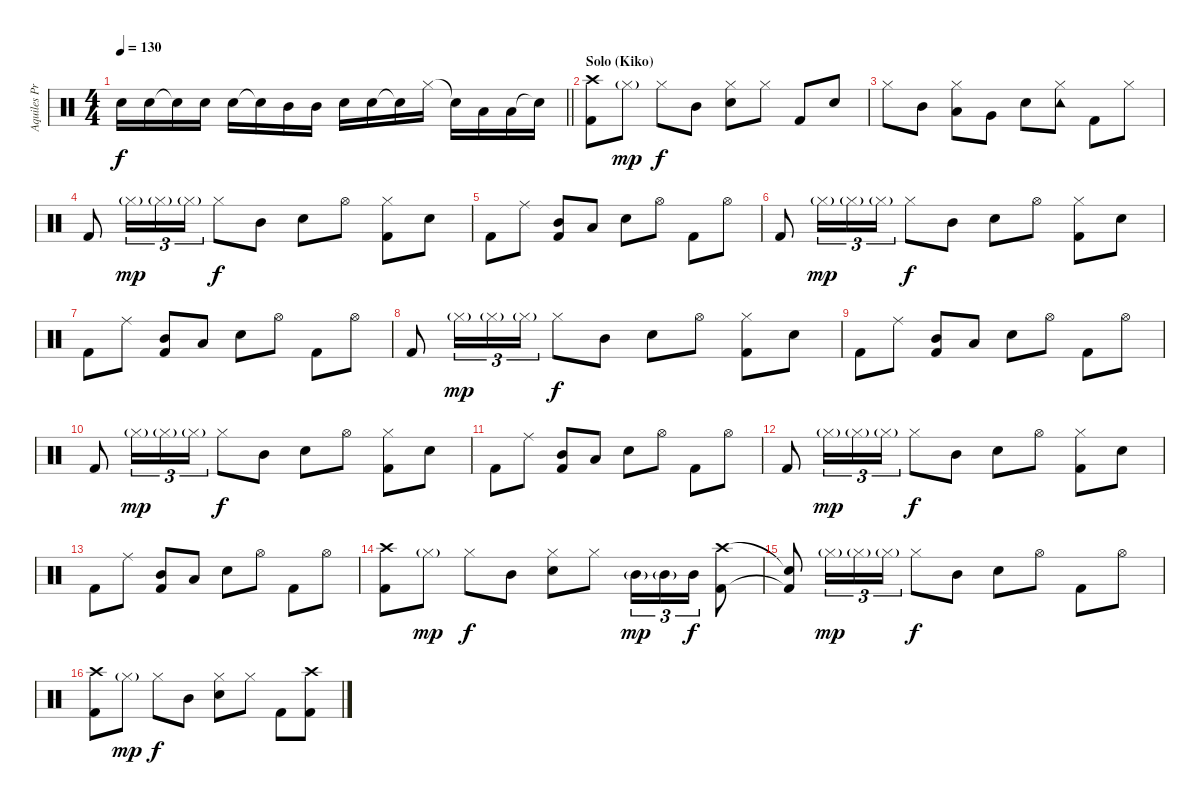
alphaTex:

\track ("Aquiles Priester" "Aquiles Pr") {instrument percussion}
\staff {score}
\articulation defaults
\ts (4 4)
\tempo 130
\clef neutral
\barLineRight lightlight
\ks c "Electric Snare (hit)".16{dy f} "Electric Snare (hit)".16 "Snare (hit)"{t}.16 "Electric Snare (hit)".16 "Electric Snare (hit)".16 "Snare (hit)"{t}.16 "Mid Tom (hit)".16 "Mid Tom (hit)".16 "Electric Snare (hit)".16 "Electric Snare (hit)".16 "Snare (hit)"{t}.16 "Hi-Hat (closed)".16 "Snare (hit)"{t}.16 "Low Tom (hit)".16 "Low Tom (hit)".16 "Snare (hit)"{t}.16
|
\section ("" "Solo (Kiko)")
("Crash high (hit)" "Kick (hit) 2").8 "Hi-Hat (closed)"{g}.8{dy mp} "Hi-Hat (closed)".8{dy f} "Mid Tom (hit)".8 ("Hi-Hat (closed)" "Electric Snare (hit)").8 "Hi-Hat (closed)".8 "Kick (hit) 2".8 "Electric Snare (hit)".8 |
"Hi-Hat (closed)".8 "Mid Tom (hit)".8 ("Hi-Hat (closed)" "Low Tom (hit)").8 "Very Low Tom (hit)".8 "Electric Snare (hit)".8 ("Tambourine (hit)" "Hi-Hat (closed)").8 "Kick (hit) 2".8 "Hi-Hat (closed)".8 |
"Kick (hit) 2".8 "Hi-Hat (closed)"{g}.16{tu (3 2) dy mp} "Hi-Hat (closed)"{g}.16{tu (3 2)} "Hi-Hat (closed)"{g}.16{tu (3 2)} "Hi-Hat (closed)".8{dy f} "Mid Tom (hit)".8 "Electric Snare (hit)".8 "Hi-Hat (open)".8 ("Hi-Hat (closed)" "Kick (hit) 2").8 "Electric Snare (hit)".8 |
"Kick (hit) 2".8 "Ride (middle)".8 ("Mid Tom (hit)" "Kick (hit) 2").8 "Low Tom (hit)".8 "Electric Snare (hit)".8 "Hi-Hat (open)".8 "Kick (hit) 2".8 "Hi-Hat (open)".8 |
"Kick (hit) 2".8 "Hi-Hat (closed)"{g}.16{tu (3 2) dy mp} "Hi-Hat (closed)"{g}.16{tu (3 2)} "Hi-Hat (closed)"{g}.16{tu (3 2)} "Hi-Hat (closed)".8{dy f} "Mid Tom (hit)".8 "Electric Snare (hit)".8 "Hi-Hat (open)".8 ("Hi-Hat (closed)" "Kick (hit) 2").8 "Electric Snare (hit)".8 |
"Kick (hit) 2".8 "Ride (middle)".8 ("Mid Tom (hit)" "Kick (hit) 2").8 "Low Tom (hit)".8 "Electric Snare (hit)".8 "Hi-Hat (open)".8 "Kick (hit) 2".8 "Hi-Hat (open)".8 |
"Kick (hit) 2".8 "Hi-Hat (closed)"{g}.16{tu (3 2) dy mp} "Hi-Hat (closed)"{g}.16{tu (3 2)} "Hi-Hat (closed)"{g}.16{tu (3 2)} "Hi-Hat (closed)".8{dy f} "Mid Tom (hit)".8 "Electric Snare (hit)".8 "Hi-Hat (open)".8 ("Hi-Hat (closed)" "Kick (hit) 2").8 "Electric Snare (hit)".8 |
"Kick (hit) 2".8 "Ride (middle)".8 ("Mid Tom (hit)" "Kick (hit) 2").8 "Low Tom (hit)".8 "Electric Snare (hit)".8 "Hi-Hat (open)".8 "Kick (hit) 2".8 "Hi-Hat (open)".8 |
"Kick (hit) 2".8 "Hi-Hat (closed)"{g}.16{tu (3 2) dy mp} "Hi-Hat (closed)"{g}.16{tu (3 2)} "Hi-Hat (closed)"{g}.16{tu (3 2)} "Hi-Hat (closed)".8{dy f} "Mid Tom (hit)".8 "Electric Snare (hit)".8 "Hi-Hat (open)".8 ("Hi-Hat (closed)" "Kick (hit) 2").8 "Electric Snare (hit)".8 |
"Kick (hit) 2".8 "Ride (middle)".8 ("Mid Tom (hit)" "Kick (hit) 2").8 "Low Tom (hit)".8 "Electric Snare (hit)".8 "Hi-Hat (open)".8 "Kick (hit) 2".8 "Hi-Hat (open)".8 |
"Kick (hit) 2".8 "Hi-Hat (closed)"{g}.16{tu (3 2) dy mp} "Hi-Hat (closed)"{g}.16{tu (3 2)} "Hi-Hat (closed)"{g}.16{tu (3 2)} "Hi-Hat (closed)".8{dy f} "Mid Tom (hit)".8 "Electric Snare (hit)".8 "Hi-Hat (open)".8 ("Hi-Hat (closed)" "Kick (hit) 2").8 "Electric Snare (hit)".8 |
"Kick (hit) 2".8 "Ride (middle)".8 ("Mid Tom (hit)" "Kick (hit) 2").8 "Low Tom (hit)".8 "Electric Snare (hit)".8 "Hi-Hat (open)".8 "Kick (hit) 2".8 "Hi-Hat (open)".8 |
("Crash high (hit)" "Kick (hit) 2").8 "Hi-Hat (closed)"{g}.8{dy mp} "Hi-Hat (closed)".8{dy f} "Mid Tom (hit)".8 ("Hi-Hat (closed)" "Electric Snare (hit)").8 "Hi-Hat (closed)".8 "Mid Tom (hit)"{g}.16{tu (3 2) dy mp} "Mid Tom (hit)"{g}.16{tu (3 2)} "Mid Tom (hit)".16{tu (3 2) dy f} ("Crash high (hit)" "Kick (hit) 2").8 |
("Snare (hit)"{t} "Kick (hit) 2"{t}).8 "Hi-Hat (closed)"{g}.16{tu (3 2) dy mp} "Hi-Hat (closed)"{g}.16{tu (3 2)} "Hi-Hat (closed)"{g}.16{tu (3 2)} "Hi-Hat (closed)".8{dy f} "Mid Tom (hit)".8 "Electric Snare (hit)".8 "Hi-Hat (open)".8 "Kick (hit) 2".8 "Hi-Hat (open)".8 |
("Crash high (hit)" "Kick (hit) 2").8 "Hi-Hat (closed)"{g}.8{dy mp} "Hi-Hat (closed)".8{dy f} "Mid Tom (hit)".8 ("Hi-Hat (closed)" "Electric Snare (hit)").8 "Hi-Hat (closed)".8 "Kick (hit) 2".8 ("Crash high (hit)" "Kick (hit) 2").8
